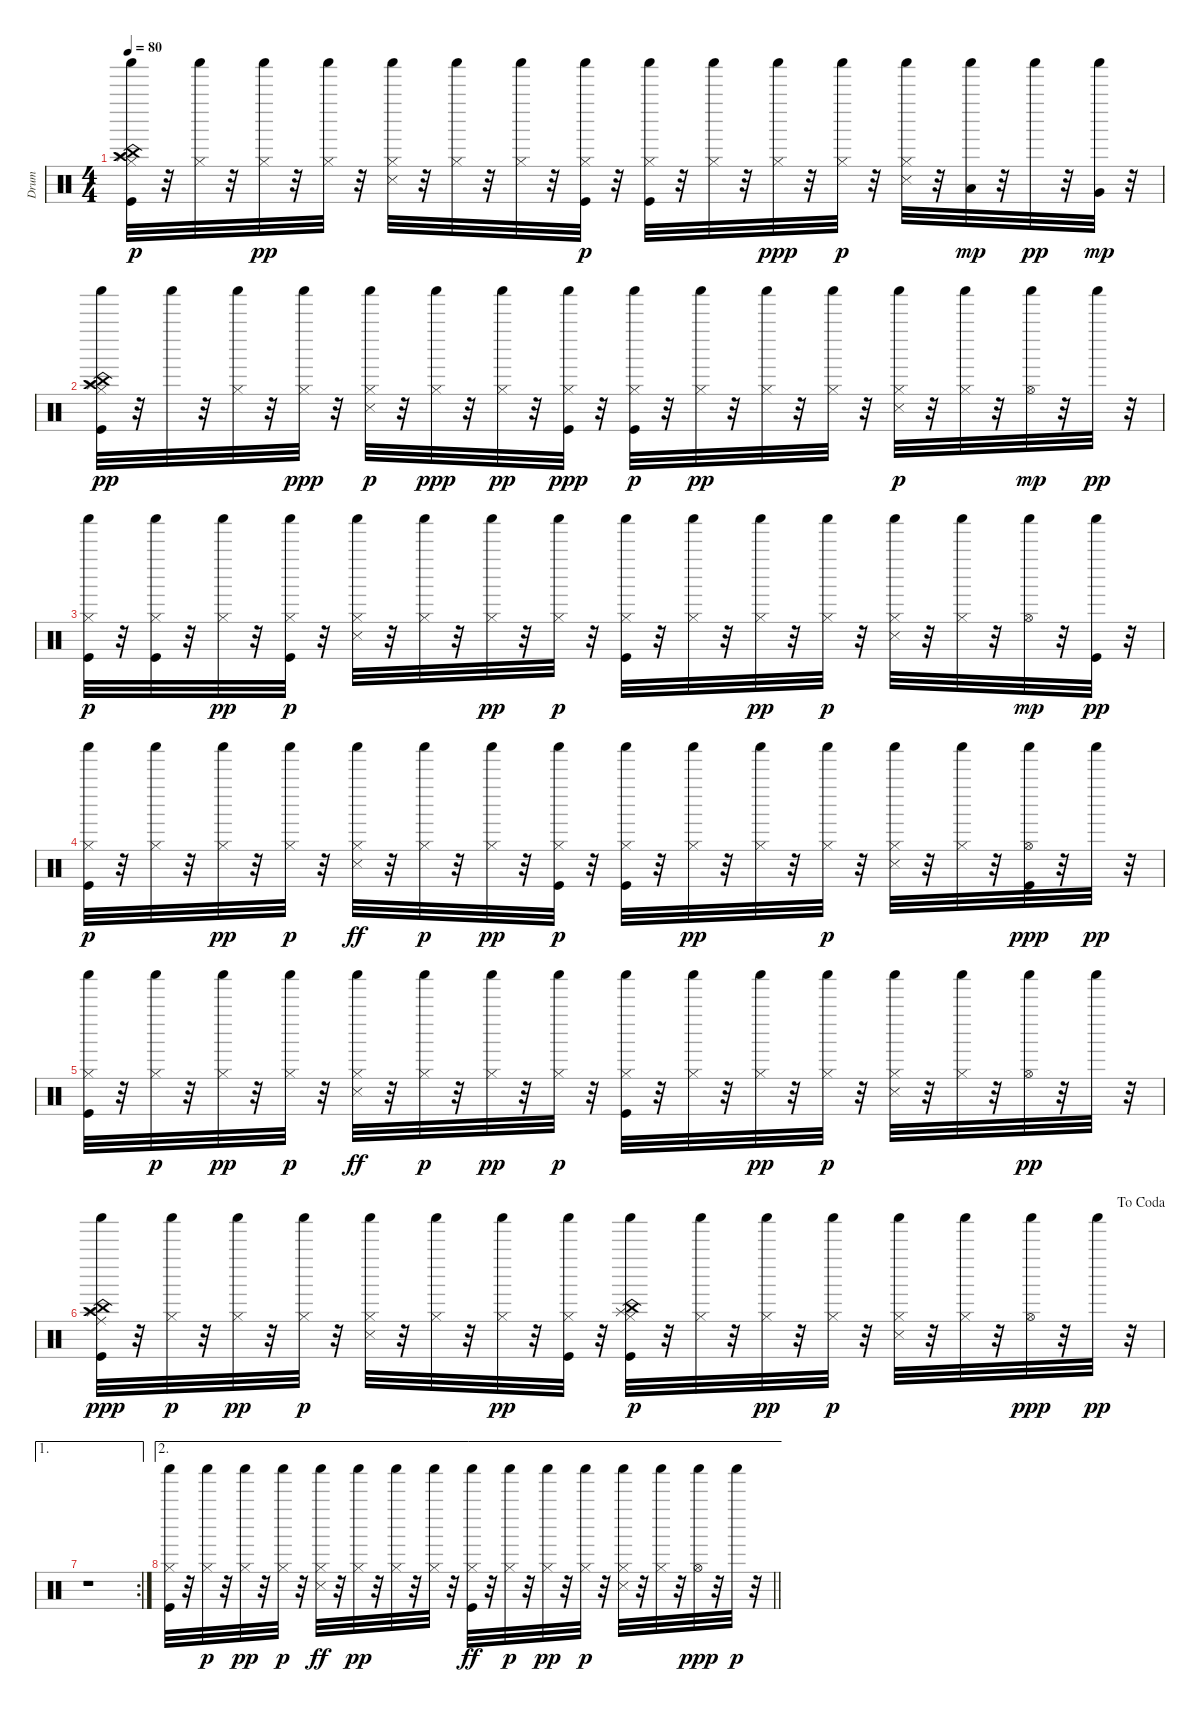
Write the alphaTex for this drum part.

\track ("Drum" "Drum") {instrument percussion}
\staff {score}
\articulation defaults
\ts (4 4)
\tempo 80
\clef neutral
\ks c
("Shaker (hit)" "Hi-Hat (closed)" "Kick (hit)" "Crash high (hit)" "Splash (hit)" "China (hit)").32{dy p} r.32 ("Shaker (hit)" "Hi-Hat (closed)").32 r.32 ("Shaker (hit)" "Hi-Hat (closed)").32{dy pp} r.32 ("Shaker (hit)" "Hi-Hat (closed)").32 r.32 ("Snare (side stick) 3" "Shaker (hit)" "Hi-Hat (closed)").32 r.32 ("Shaker (hit)" "Hi-Hat (closed)").32 r.32 ("Shaker (hit)" "Hi-Hat (closed)").32 r.32 ("Kick (hit)" "Shaker (hit)" "Hi-Hat (closed)").32{dy p} r.32 ("Shaker (hit)" "Hi-Hat (closed)" "Kick (hit)").32 r.32 ("Shaker (hit)" "Hi-Hat (closed)").32 r.32 ("Shaker (hit)" "Hi-Hat (closed)").32{dy ppp} r.32 ("Shaker (hit)" "Hi-Hat (closed)").32{dy p} r.32 ("Snare (side stick) 3" "Shaker (hit)" "Hi-Hat (closed)").32 r.32 ("Shaker (hit)" "Low Tom (hit)").32{dy mp} r.32 "Shaker (hit)".32{dy pp} r.32 ("Shaker (hit)" "Very Low Tom (hit)").32{dy mp} r.32 |
("Splash (hit)" "Crash high (hit)" "China (hit)" "Kick (hit)" "Shaker (hit)" "Hi-Hat (closed)").32{dy pp} r.32 "Shaker (hit)".32 r.32 ("Shaker (hit)" "Hi-Hat (closed)").32 r.32 ("Shaker (hit)" "Hi-Hat (closed)").32{dy ppp} r.32 ("Snare (side stick) 3" "Shaker (hit)" "Hi-Hat (closed)").32{dy p} r.32 ("Shaker (hit)" "Hi-Hat (closed)").32{dy ppp} r.32 ("Shaker (hit)" "Hi-Hat (closed)").32{dy pp} r.32 ("Kick (hit)" "Shaker (hit)" "Hi-Hat (closed)").32{dy ppp} r.32 ("Kick (hit)" "Shaker (hit)" "Hi-Hat (closed)").32{dy p} r.32 ("Hi-Hat (closed)" "Shaker (hit)").32{dy pp} r.32 ("Shaker (hit)" "Hi-Hat (closed)").32 r.32 ("Shaker (hit)" "Hi-Hat (closed)").32 r.32 ("Snare (side stick) 3" "Shaker (hit)" "Hi-Hat (closed)").32{dy p} r.32 ("Shaker (hit)" "Hi-Hat (closed)").32 r.32 ("Shaker (hit)" "Hi-Hat (open)").32{dy mp} r.32 "Shaker (hit)".32{dy pp} r.32 |
("Kick (hit)" "Shaker (hit)" "Hi-Hat (closed)").32{dy p} r.32 ("Kick (hit)" "Shaker (hit)" "Hi-Hat (closed)").32 r.32 ("Shaker (hit)" "Hi-Hat (closed)").32{dy pp} r.32 ("Shaker (hit)" "Kick (hit)" "Hi-Hat (closed)").32{dy p} r.32 ("Snare (side stick) 3" "Hi-Hat (closed)" "Shaker (hit)").32 r.32 ("Shaker (hit)" "Hi-Hat (closed)").32 r.32 ("Shaker (hit)" "Hi-Hat (closed)").32{dy pp} r.32 ("Shaker (hit)" "Hi-Hat (closed)").32{dy p} r.32 ("Kick (hit)" "Hi-Hat (closed)" "Shaker (hit)").32 r.32 ("Shaker (hit)" "Hi-Hat (closed)").32 r.32 ("Shaker (hit)" "Hi-Hat (closed)").32{dy pp} r.32 ("Shaker (hit)" "Hi-Hat (closed)").32{dy p} r.32 ("Shaker (hit)" "Snare (side stick) 3" "Hi-Hat (closed)").32 r.32 ("Shaker (hit)" "Hi-Hat (closed)").32 r.32 ("Shaker (hit)" "Hi-Hat (open)").32{dy mp} r.32 ("Kick (hit)" "Shaker (hit)").32{dy pp} r.32 |
("Kick (hit)" "Shaker (hit)" "Hi-Hat (closed)").32{dy p} r.32 ("Shaker (hit)" "Hi-Hat (closed)").32 r.32 ("Shaker (hit)" "Hi-Hat (closed)").32{dy pp} r.32 ("Shaker (hit)" "Hi-Hat (closed)").32{dy p} r.32 ("Shaker (hit)" "Hi-Hat (closed)" "Snare (side stick) 3").32{dy ff} r.32 ("Shaker (hit)" "Hi-Hat (closed)").32{dy p} r.32 ("Shaker (hit)" "Hi-Hat (closed)").32{dy pp} r.32 ("Kick (hit)" "Shaker (hit)" "Hi-Hat (closed)").32{dy p} r.32 ("Kick (hit)" "Shaker (hit)" "Hi-Hat (closed)").32 r.32 ("Shaker (hit)" "Hi-Hat (closed)").32{dy pp} r.32 ("Shaker (hit)" "Hi-Hat (closed)").32 r.32 ("Shaker (hit)" "Hi-Hat (closed)").32{dy p} r.32 ("Snare (side stick) 3" "Shaker (hit)" "Hi-Hat (closed)").32 r.32 ("Shaker (hit)" "Hi-Hat (closed)").32 r.32 ("Hi-Hat (open)" "Kick (hit)" "Shaker (hit)").32{dy ppp} r.32 "Shaker (hit)".32{dy pp} r.32 |
("Shaker (hit)" "Hi-Hat (closed)" "Kick (hit)").32 r.32 ("Shaker (hit)" "Hi-Hat (closed)").32{dy p} r.32 ("Shaker (hit)" "Hi-Hat (closed)").32{dy pp} r.32 ("Shaker (hit)" "Hi-Hat (closed)").32{dy p} r.32 ("Shaker (hit)" "Hi-Hat (closed)" "Snare (side stick) 3").32{dy ff} r.32 ("Shaker (hit)" "Hi-Hat (closed)").32{dy p} r.32 ("Shaker (hit)" "Hi-Hat (closed)").32{dy pp} r.32 ("Shaker (hit)" "Hi-Hat (closed)").32{dy p} r.32 ("Shaker (hit)" "Kick (hit)" "Hi-Hat (closed)").32 r.32 ("Shaker (hit)" "Hi-Hat (closed)").32 r.32 ("Shaker (hit)" "Hi-Hat (closed)").32{dy pp} r.32 ("Shaker (hit)" "Hi-Hat (closed)").32{dy p} r.32 ("Shaker (hit)" "Snare (side stick) 3" "Hi-Hat (closed)").32 r.32 ("Shaker (hit)" "Hi-Hat (closed)").32 r.32 ("Hi-Hat (open)" "Shaker (hit)").32{dy pp} r.32 "Shaker (hit)".32 r.32 |
\jump dacoda
("Splash (hit)" "Crash high (hit)" "China (hit)" "Shaker (hit)" "Kick (hit)" "Ride (middle)").32{dy ppp} r.32 ("Shaker (hit)" "Hi-Hat (closed)").32{dy p} r.32 ("Shaker (hit)" "Hi-Hat (closed)").32{dy pp} r.32 ("Shaker (hit)" "Hi-Hat (closed)").32{dy p} r.32 ("Snare (side stick) 3" "Shaker (hit)" "Hi-Hat (closed)").32 r.32 ("Shaker (hit)" "Hi-Hat (closed)").32 r.32 ("Shaker (hit)" "Hi-Hat (closed)").32{dy pp} r.32 ("Kick (hit)" "Hi-Hat (closed)" "Shaker (hit)").32 r.32 ("Splash (hit)" "China (hit)" "Kick (hit)" "Hi-Hat (closed)" "Shaker (hit)").32{dy p} r.32 ("Hi-Hat (closed)" "Shaker (hit)").32 r.32 ("Hi-Hat (closed)" "Shaker (hit)").32{dy pp} r.32 ("Shaker (hit)" "Hi-Hat (closed)").32{dy p} r.32 ("Snare (side stick) 3" "Shaker (hit)" "Hi-Hat (closed)").32 r.32 ("Shaker (hit)" "Hi-Hat (closed)").32 r.32 ("Hi-Hat (open)" "Shaker (hit)").32{dy ppp} r.32 "Shaker (hit)".32{dy pp} r.32 |
\ae 1
\rc 2
r.1 |
\ae 2
\barLineRight lightlight
("Shaker (hit)" "Kick (hit)" "Hi-Hat (closed)").32 r.32 ("Shaker (hit)" "Hi-Hat (closed)").32{dy p} r.32 ("Hi-Hat (closed)" "Shaker (hit)").32{dy pp} r.32 ("Shaker (hit)" "Hi-Hat (closed)").32{dy p} r.32 ("Shaker (hit)" "Hi-Hat (closed)" "Snare (side stick) 3").32{dy ff} r.32 ("Hi-Hat (closed)" "Shaker (hit)").32{dy pp} r.32 ("Shaker (hit)" "Hi-Hat (closed)").32 r.32 ("Shaker (hit)" "Hi-Hat (closed)").32 r.32 ("Shaker (hit)" "Hi-Hat (closed)" "Kick (hit)").32{dy ff} r.32 ("Shaker (hit)" "Hi-Hat (closed)").32{dy p} r.32 ("Shaker (hit)" "Hi-Hat (closed)").32{dy pp} r.32 ("Shaker (hit)" "Hi-Hat (closed)").32{dy p} r.32 ("Shaker (hit)" "Snare (side stick) 3" "Hi-Hat (closed)").32 r.32 ("Shaker (hit)" "Hi-Hat (closed)").32 r.32 ("Hi-Hat (open)" "Shaker (hit)").32{dy ppp} r.32 "Shaker (hit)".32{dy p} r.32
